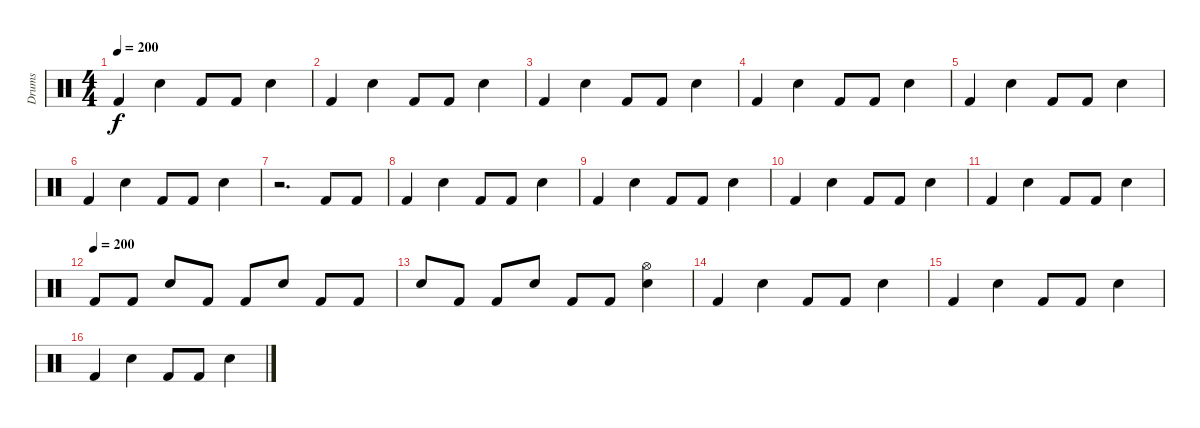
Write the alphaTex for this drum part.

\track ("Drums" "Drums") {instrument percussion}
\staff {score}
\articulation defaults
\ts (4 4)
\tempo 200
\clef neutral
\ks c "Kick (hit) 2".4{dy f} "Snare (hit) 2".4 "Kick (hit) 2".8 "Kick (hit) 2".8 "Snare (hit) 2".4
|
"Kick (hit) 2".4 "Snare (hit) 2".4 "Kick (hit) 2".8 "Kick (hit) 2".8 "Snare (hit) 2".4 |
"Kick (hit) 2".4 "Snare (hit) 2".4 "Kick (hit) 2".8 "Kick (hit) 2".8 "Snare (hit) 2".4 |
"Kick (hit) 2".4 "Snare (hit) 2".4 "Kick (hit) 2".8 "Kick (hit) 2".8 "Snare (hit) 2".4 |
"Kick (hit) 2".4 "Snare (hit) 2".4 "Kick (hit) 2".8 "Kick (hit) 2".8 "Snare (hit) 2".4 |
"Kick (hit) 2".4 "Snare (hit) 2".4 "Kick (hit) 2".8 "Kick (hit) 2".8 "Snare (hit) 2".4 |
r.2{d} "Kick (hit) 2".8 "Kick (hit) 2".8 |
"Kick (hit) 2".4 "Snare (hit) 2".4 "Kick (hit) 2".8 "Kick (hit) 2".8 "Snare (hit) 2".4 |
"Kick (hit) 2".4 "Snare (hit) 2".4 "Kick (hit) 2".8 "Kick (hit) 2".8 "Snare (hit) 2".4 |
"Kick (hit) 2".4 "Snare (hit) 2".4 "Kick (hit) 2".8 "Kick (hit) 2".8 "Snare (hit) 2".4 |
"Kick (hit) 2".4 "Snare (hit) 2".4 "Kick (hit) 2".8 "Kick (hit) 2".8 "Snare (hit) 2".4 |
\tempo (200)
"Kick (hit) 2".8 "Kick (hit) 2".8 "Snare (hit) 2".8 "Kick (hit) 2".8 "Kick (hit) 2".8 "Snare (hit) 2".8 "Kick (hit) 2".8 "Kick (hit) 2".8 |
"Snare (hit) 2".8 "Kick (hit) 2".8 "Kick (hit) 2".8 "Snare (hit) 2".8 "Kick (hit) 2".8 "Kick (hit) 2".8 ("Hi-Hat (open)" "Snare (hit) 2").4 |
"Kick (hit) 2".4 "Snare (hit) 2".4 "Kick (hit) 2".8 "Kick (hit) 2".8 "Snare (hit) 2".4 |
"Kick (hit) 2".4 "Snare (hit) 2".4 "Kick (hit) 2".8 "Kick (hit) 2".8 "Snare (hit) 2".4 |
"Kick (hit) 2".4 "Snare (hit) 2".4 "Kick (hit) 2".8 "Kick (hit) 2".8 "Snare (hit) 2".4
